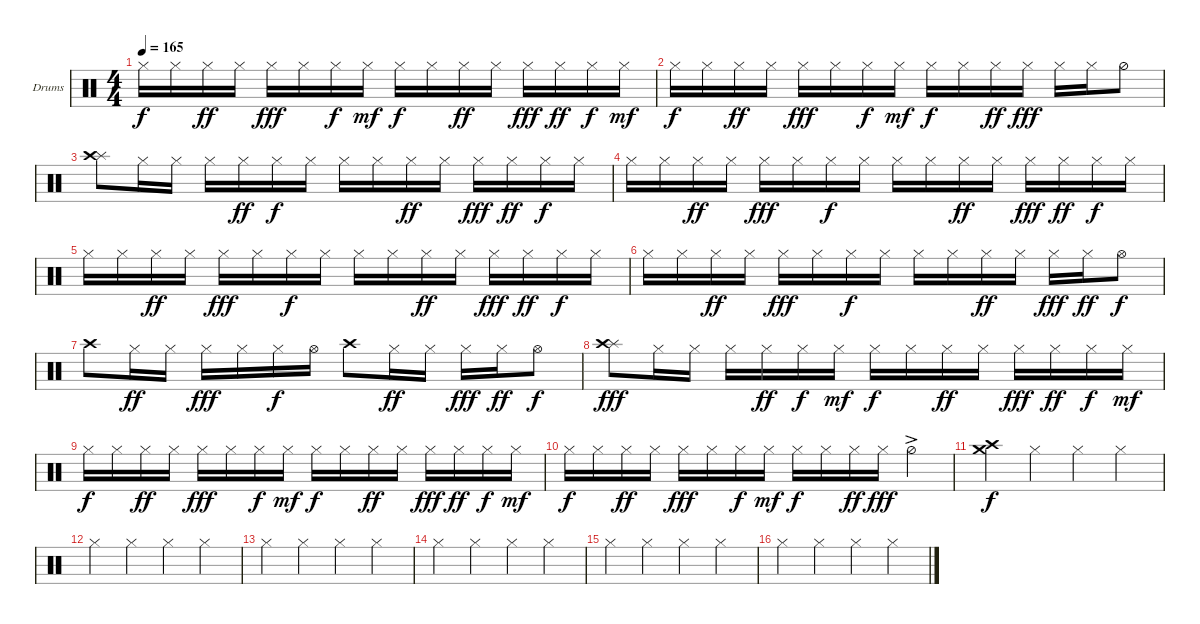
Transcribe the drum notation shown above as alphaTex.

\defaultSystemsLayout 4
\bracketExtendMode groupsimilarinstruments
\firstSystemTrackNameOrientation horizontal
\otherSystemsTrackNameOrientation horizontal
\track ("Helders" "Drums") {instrument percussion}
\staff {score}
\articulation defaults
\ts (4 4)
\tempo 165
\clef neutral
\ks c "Hi-Hat (closed)".16{dy f} "Hi-Hat (closed)".16 "Hi-Hat (closed)".16{dy ff} "Hi-Hat (closed)".16 "Hi-Hat (closed)".16{dy fff} "Hi-Hat (closed)".16 "Hi-Hat (closed)".16{dy f} "Hi-Hat (closed)".16{dy mf} "Hi-Hat (closed)".16{dy f} "Hi-Hat (closed)".16 "Hi-Hat (closed)".16{dy ff} "Hi-Hat (closed)".16 "Hi-Hat (closed)".16{dy fff} "Hi-Hat (closed)".16{dy ff} "Hi-Hat (closed)".16{dy f} "Hi-Hat (closed)".16{dy mf}
|
"Hi-Hat (closed)".16{dy f} "Hi-Hat (closed)".16 "Hi-Hat (closed)".16{dy ff} "Hi-Hat (closed)".16 "Hi-Hat (closed)".16{dy fff} "Hi-Hat (closed)".16 "Hi-Hat (closed)".16{dy f} "Hi-Hat (closed)".16{dy mf} "Hi-Hat (closed)".16{dy f} "Hi-Hat (closed)".16 "Hi-Hat (closed)".16{dy ff} "Hi-Hat (closed)".16{dy fff} "Hi-Hat (closed)".16 "Hi-Hat (closed)".16 "Hi-Hat (half)".8 |
("Splash (hit)" "Crash high (hit)").8 "Hi-Hat (closed)".16 "Hi-Hat (closed)".16 "Hi-Hat (closed)".16 "Hi-Hat (closed)".16{dy ff} "Hi-Hat (closed)".16{dy f} "Hi-Hat (closed)".16 "Hi-Hat (closed)".16 "Hi-Hat (closed)".16 "Hi-Hat (closed)".16{dy ff} "Hi-Hat (closed)".16 "Hi-Hat (closed)".16{dy fff} "Hi-Hat (closed)".16{dy ff} "Hi-Hat (closed)".16{dy f} "Hi-Hat (closed)".16 |
"Hi-Hat (closed)".16 "Hi-Hat (closed)".16 "Hi-Hat (closed)".16{dy ff} "Hi-Hat (closed)".16 "Hi-Hat (closed)".16{dy fff} "Hi-Hat (closed)".16 "Hi-Hat (closed)".16{dy f} "Hi-Hat (closed)".16 "Hi-Hat (closed)".16 "Hi-Hat (closed)".16 "Hi-Hat (closed)".16{dy ff} "Hi-Hat (closed)".16 "Hi-Hat (closed)".16{dy fff} "Hi-Hat (closed)".16{dy ff} "Hi-Hat (closed)".16{dy f} "Hi-Hat (closed)".16 |
"Hi-Hat (closed)".16 "Hi-Hat (closed)".16 "Hi-Hat (closed)".16{dy ff} "Hi-Hat (closed)".16 "Hi-Hat (closed)".16{dy fff} "Hi-Hat (closed)".16 "Hi-Hat (closed)".16{dy f} "Hi-Hat (closed)".16 "Hi-Hat (closed)".16 "Hi-Hat (closed)".16 "Hi-Hat (closed)".16{dy ff} "Hi-Hat (closed)".16 "Hi-Hat (closed)".16{dy fff} "Hi-Hat (closed)".16{dy ff} "Hi-Hat (closed)".16{dy f} "Hi-Hat (closed)".16 |
"Hi-Hat (closed)".16 "Hi-Hat (closed)".16 "Hi-Hat (closed)".16{dy ff} "Hi-Hat (closed)".16 "Hi-Hat (closed)".16{dy fff} "Hi-Hat (closed)".16 "Hi-Hat (closed)".16{dy f} "Hi-Hat (closed)".16 "Hi-Hat (closed)".16 "Hi-Hat (closed)".16 "Hi-Hat (closed)".16{dy ff} "Hi-Hat (closed)".16 "Hi-Hat (closed)".16{dy fff} "Hi-Hat (closed)".16{dy ff} "Hi-Hat (open)".8{dy f} |
"Crash high (hit)".8 "Hi-Hat (closed)".16{dy ff} "Hi-Hat (closed)".16 "Hi-Hat (closed)".16{dy fff} "Hi-Hat (closed)".16 "Hi-Hat (closed)".16{dy f} "Hi-Hat (open)".16 "Crash high (hit)".8 "Hi-Hat (closed)".16{dy ff} "Hi-Hat (closed)".16 "Hi-Hat (closed)".16{dy fff} "Hi-Hat (closed)".16{dy ff} "Hi-Hat (open)".8{dy f} |
("Splash (hit)" "Crash high (hit)").8{dy fff} "Hi-Hat (closed)".16 "Hi-Hat (closed)".16 "Hi-Hat (closed)".16 "Hi-Hat (closed)".16{dy ff} "Hi-Hat (closed)".16{dy f} "Hi-Hat (closed)".16{dy mf} "Hi-Hat (closed)".16{dy f} "Hi-Hat (closed)".16 "Hi-Hat (closed)".16{dy ff} "Hi-Hat (closed)".16 "Hi-Hat (closed)".16{dy fff} "Hi-Hat (closed)".16{dy ff} "Hi-Hat (closed)".16{dy f} "Hi-Hat (closed)".16{dy mf} |
"Hi-Hat (closed)".16{dy f} "Hi-Hat (closed)".16 "Hi-Hat (closed)".16{dy ff} "Hi-Hat (closed)".16 "Hi-Hat (closed)".16{dy fff} "Hi-Hat (closed)".16 "Hi-Hat (closed)".16{dy f} "Hi-Hat (closed)".16{dy mf} "Hi-Hat (closed)".16{dy f} "Hi-Hat (closed)".16 "Hi-Hat (closed)".16{dy ff} "Hi-Hat (closed)".16 "Hi-Hat (closed)".16{dy fff} "Hi-Hat (closed)".16{dy ff} "Hi-Hat (closed)".16{dy f} "Hi-Hat (closed)".16{dy mf} |
"Hi-Hat (closed)".16{dy f} "Hi-Hat (closed)".16 "Hi-Hat (closed)".16{dy ff} "Hi-Hat (closed)".16 "Hi-Hat (closed)".16{dy fff} "Hi-Hat (closed)".16 "Hi-Hat (closed)".16{dy f} "Hi-Hat (closed)".16{dy mf} "Hi-Hat (closed)".16{dy f} "Hi-Hat (closed)".16 "Hi-Hat (closed)".16{dy ff} "Hi-Hat (closed)".16{dy fff} "Hi-Hat (half)"{ac}.4 |
("Crash high (hit)" "Crash medium (hit)").4{dy f} "Hi-Hat (closed)".4 "Hi-Hat (closed)".4 "Hi-Hat (closed)".4 |
"Hi-Hat (closed)".4 "Hi-Hat (closed)".4 "Hi-Hat (closed)".4 "Hi-Hat (closed)".4 |
"Hi-Hat (closed)".4 "Hi-Hat (closed)".4 "Hi-Hat (closed)".4 "Hi-Hat (closed)".4 |
"Hi-Hat (closed)".4 "Hi-Hat (closed)".4 "Hi-Hat (closed)".4 "Hi-Hat (closed)".4 |
"Hi-Hat (closed)".4 "Hi-Hat (closed)".4 "Hi-Hat (closed)".4 "Hi-Hat (closed)".4 |
"Hi-Hat (closed)".4 "Hi-Hat (closed)".4 "Hi-Hat (closed)".4 "Hi-Hat (closed)".4
